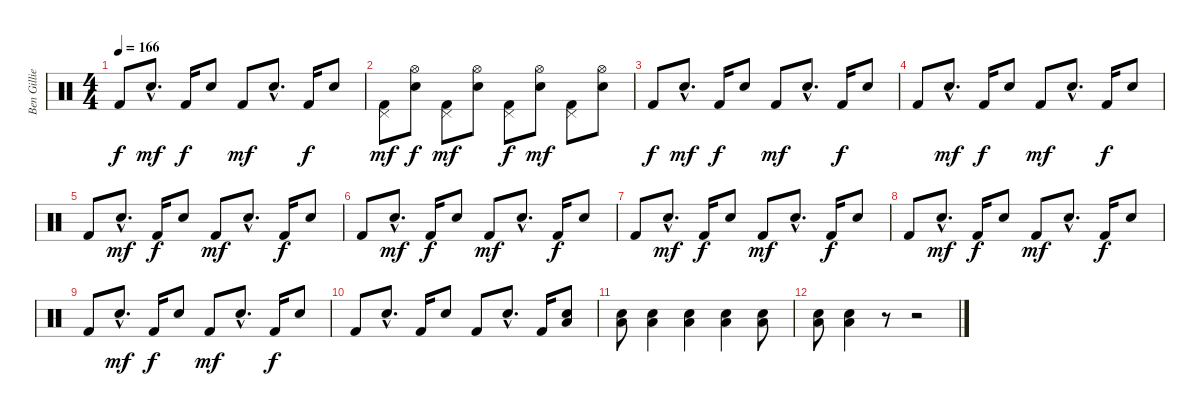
\track ("Ben Gillies" "Ben Gillie") {instrument percussion}
\staff {score}
\articulation defaults
\ts (4 4)
\tempo 166
\clef neutral
\ks c "Kick (hit) 2".8{dy f} "Electric Snare (hit)"{hac}.8{d dy mf} "Kick (hit) 2".16{dy f} "Electric Snare (hit)".8 "Kick (hit) 2".8{dy mf} "Electric Snare (hit)"{hac}.8{d} "Kick (hit) 2".16{dy f} "Electric Snare (hit)".8
|
("Pedal Hi-Hat (hit)" "Kick (hit) 2").8{dy mf} ("Hi-Hat (open)" "Electric Snare (hit)").8{dy f} ("Pedal Hi-Hat (hit)" "Kick (hit) 2").8{dy mf} ("Hi-Hat (open)" "Electric Snare (hit)").8 ("Pedal Hi-Hat (hit)" "Kick (hit) 2").8{dy f} ("Hi-Hat (open)" "Electric Snare (hit)").8{dy mf} ("Pedal Hi-Hat (hit)" "Kick (hit) 2").8 ("Hi-Hat (open)" "Electric Snare (hit)").8 |
"Kick (hit) 2".8{dy f} "Electric Snare (hit)"{hac}.8{d dy mf} "Kick (hit) 2".16{dy f} "Electric Snare (hit)".8 "Kick (hit) 2".8{dy mf} "Electric Snare (hit)"{hac}.8{d} "Kick (hit) 2".16{dy f} "Electric Snare (hit)".8 |
"Kick (hit) 2".8 "Electric Snare (hit)"{hac}.8{d dy mf} "Kick (hit) 2".16{dy f} "Electric Snare (hit)".8 "Kick (hit) 2".8{dy mf} "Electric Snare (hit)"{hac}.8{d} "Kick (hit) 2".16{dy f} "Electric Snare (hit)".8 |
"Kick (hit) 2".8 "Electric Snare (hit)"{hac}.8{d dy mf} "Kick (hit) 2".16{dy f} "Electric Snare (hit)".8 "Kick (hit) 2".8{dy mf} "Electric Snare (hit)"{hac}.8{d} "Kick (hit) 2".16{dy f} "Electric Snare (hit)".8 |
"Kick (hit) 2".8 "Electric Snare (hit)"{hac}.8{d dy mf} "Kick (hit) 2".16{dy f} "Electric Snare (hit)".8 "Kick (hit) 2".8{dy mf} "Electric Snare (hit)"{hac}.8{d} "Kick (hit) 2".16{dy f} "Electric Snare (hit)".8 |
"Kick (hit) 2".8 "Electric Snare (hit)"{hac}.8{d dy mf} "Kick (hit) 2".16{dy f} "Electric Snare (hit)".8 "Kick (hit) 2".8{dy mf} "Electric Snare (hit)"{hac}.8{d} "Kick (hit) 2".16{dy f} "Electric Snare (hit)".8 |
"Kick (hit) 2".8 "Electric Snare (hit)"{hac}.8{d dy mf} "Kick (hit) 2".16{dy f} "Electric Snare (hit)".8 "Kick (hit) 2".8{dy mf} "Electric Snare (hit)"{hac}.8{d} "Kick (hit) 2".16{dy f} "Electric Snare (hit)".8 |
"Kick (hit) 2".8 "Electric Snare (hit)"{hac}.8{d dy mf} "Kick (hit) 2".16{dy f} "Electric Snare (hit)".8 "Kick (hit) 2".8{dy mf} "Electric Snare (hit)"{hac}.8{d} "Kick (hit) 2".16{dy f} "Electric Snare (hit)".8 |
"Kick (hit) 2".8 "Electric Snare (hit)"{hac}.8{d} "Kick (hit) 2".16 "Electric Snare (hit)".8 "Kick (hit) 2".8 "Electric Snare (hit)"{hac}.8{d} "Kick (hit) 2".16 ("Low Floor Tom (hit)" "Electric Snare (hit)").8 |
("Low Floor Tom (hit)" "Electric Snare (hit)").8 ("Low Floor Tom (hit)" "Electric Snare (hit)").4 ("Low Floor Tom (hit)" "Electric Snare (hit)").4 ("Low Floor Tom (hit)" "Electric Snare (hit)").4 ("Low Floor Tom (hit)" "Electric Snare (hit)").8 |
("Low Floor Tom (hit)" "Electric Snare (hit)").8 ("Low Floor Tom (hit)" "Electric Snare (hit)").4 r.8 r.2
